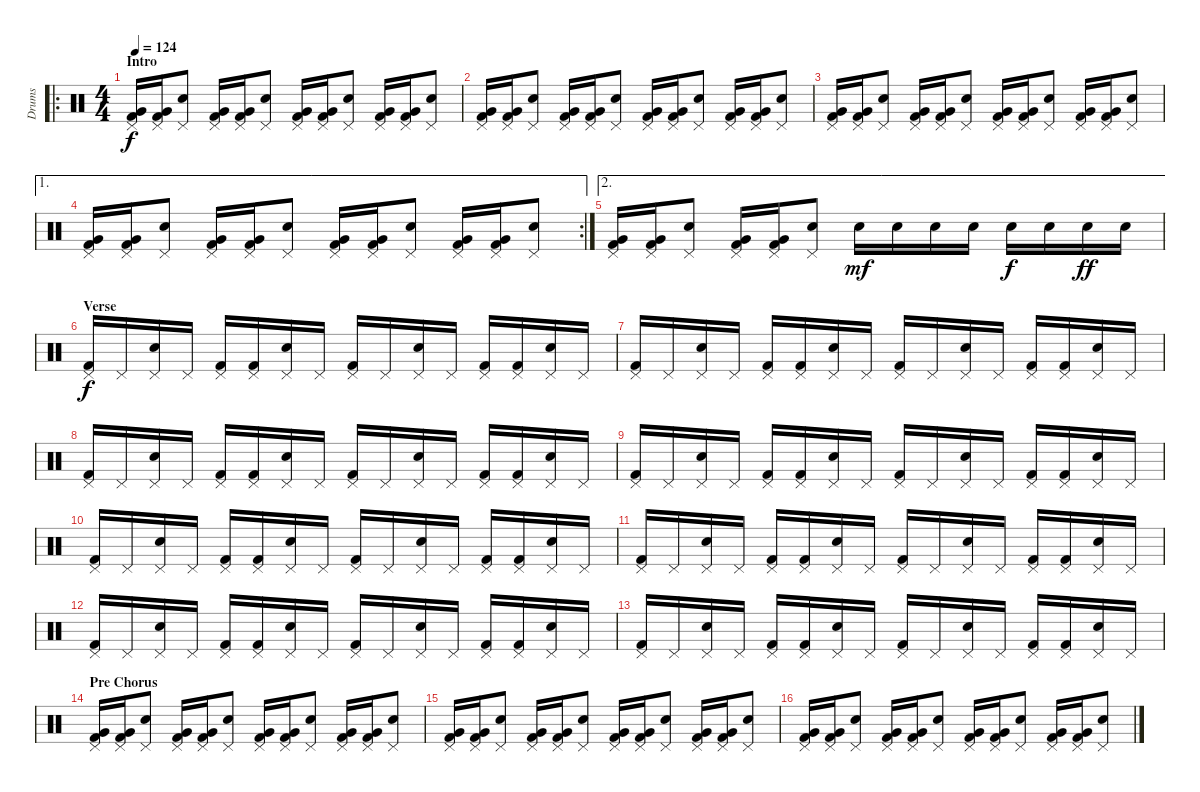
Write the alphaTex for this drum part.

\track ("Drums" "Drums") {instrument percussion}
\staff {score}
\articulation defaults
\ro
\ts (4 4)
\section ("" "Intro")
\tempo 124
\clef neutral
\ks c
("Pedal Hi-Hat (hit)" "Very Low Tom (hit)" "Kick (hit) 2").16{dy f} ("Pedal Hi-Hat (hit)" "Very Low Tom (hit)" "Kick (hit) 2").16 ("Pedal Hi-Hat (hit)" "Electric Snare (hit)").8 ("Pedal Hi-Hat (hit)" "Very Low Tom (hit)" "Kick (hit) 2").16 ("Pedal Hi-Hat (hit)" "Very Low Tom (hit)" "Kick (hit) 2").16 ("Pedal Hi-Hat (hit)" "Electric Snare (hit)").8 ("Pedal Hi-Hat (hit)" "Very Low Tom (hit)" "Kick (hit) 2").16 ("Pedal Hi-Hat (hit)" "Very Low Tom (hit)" "Kick (hit) 2").16 ("Pedal Hi-Hat (hit)" "Electric Snare (hit)").8 ("Pedal Hi-Hat (hit)" "Very Low Tom (hit)" "Kick (hit) 2").16 ("Pedal Hi-Hat (hit)" "Very Low Tom (hit)" "Kick (hit) 2").16 ("Pedal Hi-Hat (hit)" "Electric Snare (hit)").8 |
("Pedal Hi-Hat (hit)" "Very Low Tom (hit)" "Kick (hit) 2").16 ("Pedal Hi-Hat (hit)" "Very Low Tom (hit)" "Kick (hit) 2").16 ("Pedal Hi-Hat (hit)" "Electric Snare (hit)").8 ("Pedal Hi-Hat (hit)" "Very Low Tom (hit)" "Kick (hit) 2").16 ("Pedal Hi-Hat (hit)" "Very Low Tom (hit)" "Kick (hit) 2").16 ("Pedal Hi-Hat (hit)" "Electric Snare (hit)").8 ("Pedal Hi-Hat (hit)" "Very Low Tom (hit)" "Kick (hit) 2").16 ("Pedal Hi-Hat (hit)" "Very Low Tom (hit)" "Kick (hit) 2").16 ("Pedal Hi-Hat (hit)" "Electric Snare (hit)").8 ("Pedal Hi-Hat (hit)" "Very Low Tom (hit)" "Kick (hit) 2").16 ("Pedal Hi-Hat (hit)" "Very Low Tom (hit)" "Kick (hit) 2").16 ("Pedal Hi-Hat (hit)" "Electric Snare (hit)").8 |
("Pedal Hi-Hat (hit)" "Very Low Tom (hit)" "Kick (hit) 2").16 ("Pedal Hi-Hat (hit)" "Very Low Tom (hit)" "Kick (hit) 2").16 ("Pedal Hi-Hat (hit)" "Electric Snare (hit)").8 ("Pedal Hi-Hat (hit)" "Very Low Tom (hit)" "Kick (hit) 2").16 ("Pedal Hi-Hat (hit)" "Very Low Tom (hit)" "Kick (hit) 2").16 ("Pedal Hi-Hat (hit)" "Electric Snare (hit)").8 ("Pedal Hi-Hat (hit)" "Very Low Tom (hit)" "Kick (hit) 2").16 ("Pedal Hi-Hat (hit)" "Very Low Tom (hit)" "Kick (hit) 2").16 ("Pedal Hi-Hat (hit)" "Electric Snare (hit)").8 ("Pedal Hi-Hat (hit)" "Very Low Tom (hit)" "Kick (hit) 2").16 ("Pedal Hi-Hat (hit)" "Very Low Tom (hit)" "Kick (hit) 2").16 ("Pedal Hi-Hat (hit)" "Electric Snare (hit)").8 |
\ae 1
\rc 2
("Pedal Hi-Hat (hit)" "Very Low Tom (hit)" "Kick (hit) 2").16 ("Pedal Hi-Hat (hit)" "Very Low Tom (hit)" "Kick (hit) 2").16 ("Pedal Hi-Hat (hit)" "Electric Snare (hit)").8 ("Pedal Hi-Hat (hit)" "Very Low Tom (hit)" "Kick (hit) 2").16 ("Pedal Hi-Hat (hit)" "Very Low Tom (hit)" "Kick (hit) 2").16 ("Pedal Hi-Hat (hit)" "Electric Snare (hit)").8 ("Pedal Hi-Hat (hit)" "Very Low Tom (hit)" "Kick (hit) 2").16 ("Pedal Hi-Hat (hit)" "Very Low Tom (hit)" "Kick (hit) 2").16 ("Pedal Hi-Hat (hit)" "Electric Snare (hit)").8 ("Pedal Hi-Hat (hit)" "Very Low Tom (hit)" "Kick (hit) 2").16 ("Pedal Hi-Hat (hit)" "Very Low Tom (hit)" "Kick (hit) 2").16 ("Pedal Hi-Hat (hit)" "Electric Snare (hit)").8 |
\ae 2
("Pedal Hi-Hat (hit)" "Very Low Tom (hit)" "Kick (hit) 2").16 ("Pedal Hi-Hat (hit)" "Very Low Tom (hit)" "Kick (hit) 2").16 ("Pedal Hi-Hat (hit)" "Electric Snare (hit)").8 ("Pedal Hi-Hat (hit)" "Very Low Tom (hit)" "Kick (hit) 2").16 ("Pedal Hi-Hat (hit)" "Very Low Tom (hit)" "Kick (hit) 2").16 ("Pedal Hi-Hat (hit)" "Electric Snare (hit)").8 "Electric Snare (hit)".16{dy mf} "Electric Snare (hit)".16 "Electric Snare (hit)".16 "Electric Snare (hit)".16 "Electric Snare (hit)".16{dy f} "Electric Snare (hit)".16 "Electric Snare (hit)".16{dy ff} "Electric Snare (hit)".16 |
\section ("" "Verse")
("Pedal Hi-Hat (hit)" "Kick (hit) 2").16{dy f} "Pedal Hi-Hat (hit)".16 ("Pedal Hi-Hat (hit)" "Electric Snare (hit)").16 "Pedal Hi-Hat (hit)".16 ("Pedal Hi-Hat (hit)" "Kick (hit) 2").16 ("Pedal Hi-Hat (hit)" "Kick (hit) 2").16 ("Pedal Hi-Hat (hit)" "Electric Snare (hit)").16 "Pedal Hi-Hat (hit)".16 ("Pedal Hi-Hat (hit)" "Kick (hit) 2").16 "Pedal Hi-Hat (hit)".16 ("Pedal Hi-Hat (hit)" "Electric Snare (hit)").16 "Pedal Hi-Hat (hit)".16 ("Pedal Hi-Hat (hit)" "Kick (hit) 2").16 ("Pedal Hi-Hat (hit)" "Kick (hit) 2").16 ("Pedal Hi-Hat (hit)" "Electric Snare (hit)").16 "Pedal Hi-Hat (hit)".16 |
("Pedal Hi-Hat (hit)" "Kick (hit) 2").16 "Pedal Hi-Hat (hit)".16 ("Pedal Hi-Hat (hit)" "Electric Snare (hit)").16 "Pedal Hi-Hat (hit)".16 ("Pedal Hi-Hat (hit)" "Kick (hit) 2").16 ("Pedal Hi-Hat (hit)" "Kick (hit) 2").16 ("Pedal Hi-Hat (hit)" "Electric Snare (hit)").16 "Pedal Hi-Hat (hit)".16 ("Pedal Hi-Hat (hit)" "Kick (hit) 2").16 "Pedal Hi-Hat (hit)".16 ("Pedal Hi-Hat (hit)" "Electric Snare (hit)").16 "Pedal Hi-Hat (hit)".16 ("Pedal Hi-Hat (hit)" "Kick (hit) 2").16 ("Pedal Hi-Hat (hit)" "Kick (hit) 2").16 ("Pedal Hi-Hat (hit)" "Electric Snare (hit)").16 "Pedal Hi-Hat (hit)".16 |
("Pedal Hi-Hat (hit)" "Kick (hit) 2").16 "Pedal Hi-Hat (hit)".16 ("Pedal Hi-Hat (hit)" "Electric Snare (hit)").16 "Pedal Hi-Hat (hit)".16 ("Pedal Hi-Hat (hit)" "Kick (hit) 2").16 ("Pedal Hi-Hat (hit)" "Kick (hit) 2").16 ("Pedal Hi-Hat (hit)" "Electric Snare (hit)").16 "Pedal Hi-Hat (hit)".16 ("Pedal Hi-Hat (hit)" "Kick (hit) 2").16 "Pedal Hi-Hat (hit)".16 ("Pedal Hi-Hat (hit)" "Electric Snare (hit)").16 "Pedal Hi-Hat (hit)".16 ("Pedal Hi-Hat (hit)" "Kick (hit) 2").16 ("Pedal Hi-Hat (hit)" "Kick (hit) 2").16 ("Pedal Hi-Hat (hit)" "Electric Snare (hit)").16 "Pedal Hi-Hat (hit)".16 |
("Pedal Hi-Hat (hit)" "Kick (hit) 2").16 "Pedal Hi-Hat (hit)".16 ("Pedal Hi-Hat (hit)" "Electric Snare (hit)").16 "Pedal Hi-Hat (hit)".16 ("Pedal Hi-Hat (hit)" "Kick (hit) 2").16 ("Pedal Hi-Hat (hit)" "Kick (hit) 2").16 ("Pedal Hi-Hat (hit)" "Electric Snare (hit)").16 "Pedal Hi-Hat (hit)".16 ("Pedal Hi-Hat (hit)" "Kick (hit) 2").16 "Pedal Hi-Hat (hit)".16 ("Pedal Hi-Hat (hit)" "Electric Snare (hit)").16 "Pedal Hi-Hat (hit)".16 ("Pedal Hi-Hat (hit)" "Kick (hit) 2").16 ("Pedal Hi-Hat (hit)" "Kick (hit) 2").16 ("Pedal Hi-Hat (hit)" "Electric Snare (hit)").16 "Pedal Hi-Hat (hit)".16 |
("Pedal Hi-Hat (hit)" "Kick (hit) 2").16 "Pedal Hi-Hat (hit)".16 ("Pedal Hi-Hat (hit)" "Electric Snare (hit)").16 "Pedal Hi-Hat (hit)".16 ("Pedal Hi-Hat (hit)" "Kick (hit) 2").16 ("Pedal Hi-Hat (hit)" "Kick (hit) 2").16 ("Pedal Hi-Hat (hit)" "Electric Snare (hit)").16 "Pedal Hi-Hat (hit)".16 ("Pedal Hi-Hat (hit)" "Kick (hit) 2").16 "Pedal Hi-Hat (hit)".16 ("Pedal Hi-Hat (hit)" "Electric Snare (hit)").16 "Pedal Hi-Hat (hit)".16 ("Pedal Hi-Hat (hit)" "Kick (hit) 2").16 ("Pedal Hi-Hat (hit)" "Kick (hit) 2").16 ("Pedal Hi-Hat (hit)" "Electric Snare (hit)").16 "Pedal Hi-Hat (hit)".16 |
("Pedal Hi-Hat (hit)" "Kick (hit) 2").16 "Pedal Hi-Hat (hit)".16 ("Pedal Hi-Hat (hit)" "Electric Snare (hit)").16 "Pedal Hi-Hat (hit)".16 ("Pedal Hi-Hat (hit)" "Kick (hit) 2").16 ("Pedal Hi-Hat (hit)" "Kick (hit) 2").16 ("Pedal Hi-Hat (hit)" "Electric Snare (hit)").16 "Pedal Hi-Hat (hit)".16 ("Pedal Hi-Hat (hit)" "Kick (hit) 2").16 "Pedal Hi-Hat (hit)".16 ("Pedal Hi-Hat (hit)" "Electric Snare (hit)").16 "Pedal Hi-Hat (hit)".16 ("Pedal Hi-Hat (hit)" "Kick (hit) 2").16 ("Pedal Hi-Hat (hit)" "Kick (hit) 2").16 ("Pedal Hi-Hat (hit)" "Electric Snare (hit)").16 "Pedal Hi-Hat (hit)".16 |
("Pedal Hi-Hat (hit)" "Kick (hit) 2").16 "Pedal Hi-Hat (hit)".16 ("Pedal Hi-Hat (hit)" "Electric Snare (hit)").16 "Pedal Hi-Hat (hit)".16 ("Pedal Hi-Hat (hit)" "Kick (hit) 2").16 ("Pedal Hi-Hat (hit)" "Kick (hit) 2").16 ("Pedal Hi-Hat (hit)" "Electric Snare (hit)").16 "Pedal Hi-Hat (hit)".16 ("Pedal Hi-Hat (hit)" "Kick (hit) 2").16 "Pedal Hi-Hat (hit)".16 ("Pedal Hi-Hat (hit)" "Electric Snare (hit)").16 "Pedal Hi-Hat (hit)".16 ("Pedal Hi-Hat (hit)" "Kick (hit) 2").16 ("Pedal Hi-Hat (hit)" "Kick (hit) 2").16 ("Pedal Hi-Hat (hit)" "Electric Snare (hit)").16 "Pedal Hi-Hat (hit)".16 |
("Pedal Hi-Hat (hit)" "Kick (hit) 2").16 "Pedal Hi-Hat (hit)".16 ("Pedal Hi-Hat (hit)" "Electric Snare (hit)").16 "Pedal Hi-Hat (hit)".16 ("Pedal Hi-Hat (hit)" "Kick (hit) 2").16 ("Pedal Hi-Hat (hit)" "Kick (hit) 2").16 ("Pedal Hi-Hat (hit)" "Electric Snare (hit)").16 "Pedal Hi-Hat (hit)".16 ("Pedal Hi-Hat (hit)" "Kick (hit) 2").16 "Pedal Hi-Hat (hit)".16 ("Pedal Hi-Hat (hit)" "Electric Snare (hit)").16 "Pedal Hi-Hat (hit)".16 ("Pedal Hi-Hat (hit)" "Kick (hit) 2").16 ("Pedal Hi-Hat (hit)" "Kick (hit) 2").16 ("Pedal Hi-Hat (hit)" "Electric Snare (hit)").16 "Pedal Hi-Hat (hit)".16 |
\section ("" "Pre Chorus")
("Pedal Hi-Hat (hit)" "Very Low Tom (hit)" "Kick (hit) 2").16 ("Pedal Hi-Hat (hit)" "Very Low Tom (hit)" "Kick (hit) 2").16 ("Pedal Hi-Hat (hit)" "Electric Snare (hit)").8 ("Pedal Hi-Hat (hit)" "Very Low Tom (hit)" "Kick (hit) 2").16 ("Pedal Hi-Hat (hit)" "Very Low Tom (hit)" "Kick (hit) 2").16 ("Pedal Hi-Hat (hit)" "Electric Snare (hit)").8 ("Pedal Hi-Hat (hit)" "Very Low Tom (hit)" "Kick (hit) 2").16 ("Pedal Hi-Hat (hit)" "Very Low Tom (hit)" "Kick (hit) 2").16 ("Pedal Hi-Hat (hit)" "Electric Snare (hit)").8 ("Pedal Hi-Hat (hit)" "Very Low Tom (hit)" "Kick (hit) 2").16 ("Pedal Hi-Hat (hit)" "Very Low Tom (hit)" "Kick (hit) 2").16 ("Pedal Hi-Hat (hit)" "Electric Snare (hit)").8 |
("Pedal Hi-Hat (hit)" "Very Low Tom (hit)" "Kick (hit) 2").16 ("Pedal Hi-Hat (hit)" "Very Low Tom (hit)" "Kick (hit) 2").16 ("Pedal Hi-Hat (hit)" "Electric Snare (hit)").8 ("Pedal Hi-Hat (hit)" "Very Low Tom (hit)" "Kick (hit) 2").16 ("Pedal Hi-Hat (hit)" "Very Low Tom (hit)" "Kick (hit) 2").16 ("Pedal Hi-Hat (hit)" "Electric Snare (hit)").8 ("Pedal Hi-Hat (hit)" "Very Low Tom (hit)" "Kick (hit) 2").16 ("Pedal Hi-Hat (hit)" "Very Low Tom (hit)" "Kick (hit) 2").16 ("Pedal Hi-Hat (hit)" "Electric Snare (hit)").8 ("Pedal Hi-Hat (hit)" "Very Low Tom (hit)" "Kick (hit) 2").16 ("Pedal Hi-Hat (hit)" "Very Low Tom (hit)" "Kick (hit) 2").16 ("Pedal Hi-Hat (hit)" "Electric Snare (hit)").8 |
("Pedal Hi-Hat (hit)" "Very Low Tom (hit)" "Kick (hit) 2").16 ("Pedal Hi-Hat (hit)" "Very Low Tom (hit)" "Kick (hit) 2").16 ("Pedal Hi-Hat (hit)" "Electric Snare (hit)").8 ("Pedal Hi-Hat (hit)" "Very Low Tom (hit)" "Kick (hit) 2").16 ("Pedal Hi-Hat (hit)" "Very Low Tom (hit)" "Kick (hit) 2").16 ("Pedal Hi-Hat (hit)" "Electric Snare (hit)").8 ("Pedal Hi-Hat (hit)" "Very Low Tom (hit)" "Kick (hit) 2").16 ("Pedal Hi-Hat (hit)" "Very Low Tom (hit)" "Kick (hit) 2").16 ("Pedal Hi-Hat (hit)" "Electric Snare (hit)").8 ("Pedal Hi-Hat (hit)" "Very Low Tom (hit)" "Kick (hit) 2").16 ("Pedal Hi-Hat (hit)" "Very Low Tom (hit)" "Kick (hit) 2").16 ("Pedal Hi-Hat (hit)" "Electric Snare (hit)").8
